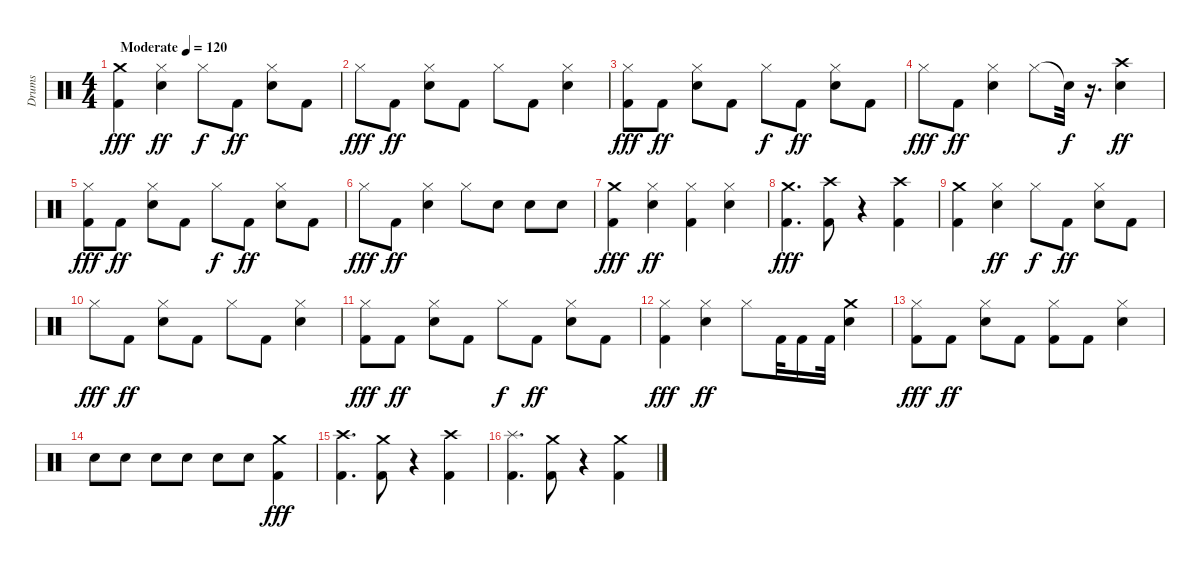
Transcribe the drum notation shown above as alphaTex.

\track ("Drums" "Drums") {instrument percussion}
\staff {score}
\articulation defaults
\ts (4 4)
\tempo (120 "Moderate")
\tempo 250
\tempo (120 "Moderate")
\clef neutral
\ks c
("Kick (hit) 2" "Crash medium (hit)").4{dy fff} ("Hi-Hat (closed)" "Electric Snare (hit)").4{dy ff} "Hi-Hat (closed)".8{dy f} "Kick (hit) 2".8{dy ff} ("Hi-Hat (closed)" "Electric Snare (hit)").8 "Kick (hit) 2".8 |
"Hi-Hat (closed)".8{dy fff} "Kick (hit) 2".8{dy ff} ("Hi-Hat (closed)" "Electric Snare (hit)").8 "Kick (hit) 2".8 "Hi-Hat (closed)".8 "Kick (hit) 2".8 ("Hi-Hat (closed)" "Electric Snare (hit)").4 |
("Kick (hit) 2" "Hi-Hat (closed)").8{dy fff} "Kick (hit) 2".8{dy ff} ("Hi-Hat (closed)" "Electric Snare (hit)").8 "Kick (hit) 2".8 "Hi-Hat (closed)".8{dy f} "Kick (hit) 2".8{dy ff} ("Hi-Hat (closed)" "Electric Snare (hit)").8 "Kick (hit) 2".8 |
"Hi-Hat (closed)".8{dy fff} "Kick (hit) 2".8{dy ff} ("Hi-Hat (closed)" "Electric Snare (hit)").4 "Hi-Hat (closed)".8 "Snare (hit)"{t}.32{dy f} r.16{d} ("Crash high (hit)" "Electric Snare (hit)").4{dy ff} |
("Kick (hit) 2" "Hi-Hat (closed)").8{dy fff} "Kick (hit) 2".8{dy ff} ("Hi-Hat (closed)" "Electric Snare (hit)").8 "Kick (hit) 2".8 "Hi-Hat (closed)".8{dy f} "Kick (hit) 2".8{dy ff} ("Hi-Hat (closed)" "Electric Snare (hit)").8 "Kick (hit) 2".8 |
"Hi-Hat (closed)".8{dy fff} "Kick (hit) 2".8{dy ff} ("Hi-Hat (closed)" "Electric Snare (hit)").4 "Hi-Hat (closed)".8 "Electric Snare (hit)".8 "Electric Snare (hit)".8 "Electric Snare (hit)".8 |
("Kick (hit) 2" "Crash medium (hit)").4{dy fff} ("Hi-Hat (closed)" "Electric Snare (hit)").4{dy ff} ("Kick (hit) 2" "Hi-Hat (closed)").4 ("Hi-Hat (closed)" "Electric Snare (hit)").4 |
("Kick (hit) 2" "Crash medium (hit)").4{d dy fff} ("Kick (hit) 2" "Crash high (hit)").8 r.4 ("Kick (hit) 2" "Crash high (hit)").4 |
("Kick (hit) 2" "Crash medium (hit)").4 ("Hi-Hat (closed)" "Electric Snare (hit)").4{dy ff} "Hi-Hat (closed)".8{dy f} "Kick (hit) 2".8{dy ff} ("Hi-Hat (closed)" "Electric Snare (hit)").8 "Kick (hit) 2".8 |
"Hi-Hat (closed)".8{dy fff} "Kick (hit) 2".8{dy ff} ("Hi-Hat (closed)" "Electric Snare (hit)").8 "Kick (hit) 2".8 "Hi-Hat (closed)".8 "Kick (hit) 2".8 ("Hi-Hat (closed)" "Electric Snare (hit)").4 |
("Kick (hit) 2" "Hi-Hat (closed)").8{dy fff} "Kick (hit) 2".8{dy ff} ("Hi-Hat (closed)" "Electric Snare (hit)").8 "Kick (hit) 2".8 "Hi-Hat (closed)".8{dy f} "Kick (hit) 2".8{dy ff} ("Hi-Hat (closed)" "Electric Snare (hit)").8 "Kick (hit) 2".8 |
("Kick (hit) 2" "Hi-Hat (closed)").4{dy fff} ("Hi-Hat (closed)" "Electric Snare (hit)").4{dy ff} "Hi-Hat (closed)".8 "Kick (hit) 2".32 "Kick (hit) 2".16 "Kick (hit) 2".32 ("Crash medium (hit)" "Electric Snare (hit)").4 |
("Kick (hit) 2" "Hi-Hat (closed)").8{dy fff} "Kick (hit) 2".8{dy ff} ("Hi-Hat (closed)" "Electric Snare (hit)").8 "Kick (hit) 2".8 ("Kick (hit) 2" "Hi-Hat (closed)").8 "Kick (hit) 2".8 ("Hi-Hat (closed)" "Electric Snare (hit)").4 |
"Electric Snare (hit)".8 "Electric Snare (hit)".8 "Electric Snare (hit)".8 "Electric Snare (hit)".8 "Electric Snare (hit)".8 "Electric Snare (hit)".8 ("Kick (hit) 2" "Crash medium (hit)").4{dy fff} |
("Kick (hit) 2" "Crash high (hit)").4{d} ("Kick (hit) 2" "Crash medium (hit)").8 r.4 ("Kick (hit) 2" "Crash high (hit)").4 |
("Kick (hit) 2" "Splash (hit)").4{d} ("Kick (hit) 2" "Crash medium (hit)").8 r.4 ("Kick (hit) 2" "Crash medium (hit)").4
